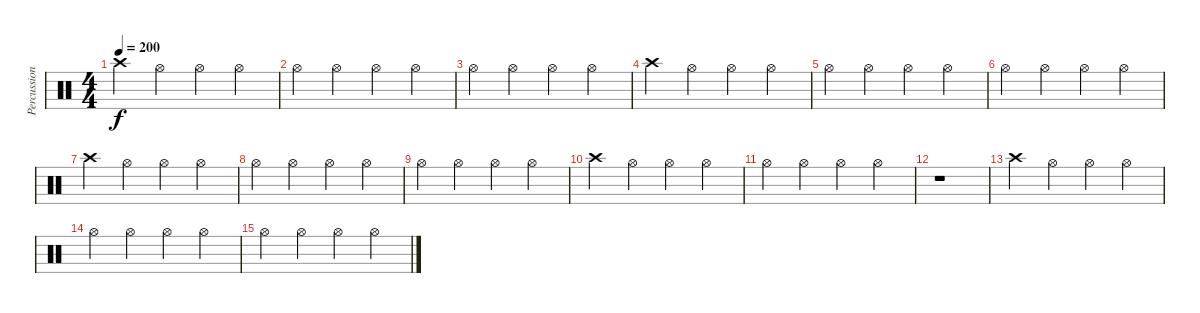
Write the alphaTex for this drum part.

\track ("Percussion" "Percussion") {instrument percussion}
\staff {score}
\articulation defaults
\ts (4 4)
\tempo 200
\clef neutral
\ks c "Crash high (hit)".4{dy f} "Hi-Hat (open)".4 "Hi-Hat (open)".4 "Hi-Hat (open)".4
|
"Hi-Hat (open)".4 "Hi-Hat (open)".4 "Hi-Hat (open)".4 "Hi-Hat (open)".4 |
"Hi-Hat (open)".4 "Hi-Hat (open)".4 "Hi-Hat (open)".4 "Hi-Hat (open)".4 |
"Crash high (hit)".4 "Hi-Hat (open)".4 "Hi-Hat (open)".4 "Hi-Hat (open)".4 |
"Hi-Hat (open)".4 "Hi-Hat (open)".4 "Hi-Hat (open)".4 "Hi-Hat (open)".4 |
"Hi-Hat (open)".4 "Hi-Hat (open)".4 "Hi-Hat (open)".4 "Hi-Hat (open)".4 |
"Crash high (hit)".4 "Hi-Hat (open)".4 "Hi-Hat (open)".4 "Hi-Hat (open)".4 |
"Hi-Hat (open)".4 "Hi-Hat (open)".4 "Hi-Hat (open)".4 "Hi-Hat (open)".4 |
"Hi-Hat (open)".4 "Hi-Hat (open)".4 "Hi-Hat (open)".4 "Hi-Hat (open)".4 |
"Crash high (hit)".4 "Hi-Hat (open)".4 "Hi-Hat (open)".4 "Hi-Hat (open)".4 |
"Hi-Hat (open)".4 "Hi-Hat (open)".4 "Hi-Hat (open)".4 "Hi-Hat (open)".4 |
r.1 |
"Crash high (hit)".4 "Hi-Hat (open)".4 "Hi-Hat (open)".4 "Hi-Hat (open)".4 |
"Hi-Hat (open)".4 "Hi-Hat (open)".4 "Hi-Hat (open)".4 "Hi-Hat (open)".4 |
"Hi-Hat (open)".4 "Hi-Hat (open)".4 "Hi-Hat (open)".4 "Hi-Hat (open)".4
